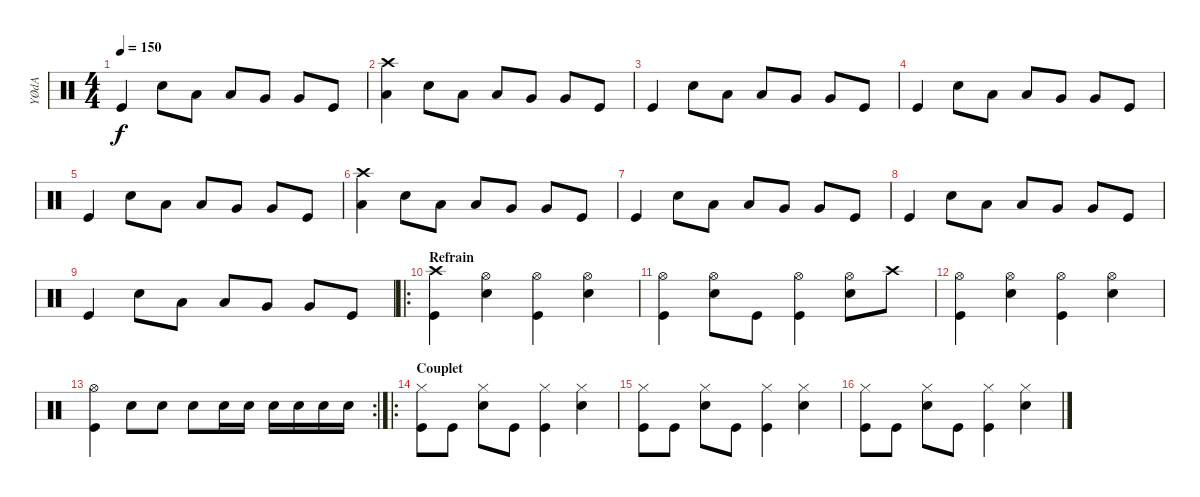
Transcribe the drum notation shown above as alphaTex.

\track ("YØdA" "YØdA") {instrument percussion}
\staff {score}
\articulation defaults
\ts (4 4)
\tempo 150
\clef neutral
\ks c "Kick (hit)".4{dy f} "Electric Snare (hit)".8 "Low Tom (hit)".8 "Low Tom (hit)".8 "Very Low Tom (hit)".8 "Very Low Tom (hit)".8 "Kick (hit)".8
|
("Crash high (hit)" "Low Tom (hit)").4 "Electric Snare (hit)".8 "Low Tom (hit)".8 "Low Tom (hit)".8 "Very Low Tom (hit)".8 "Very Low Tom (hit)".8 "Kick (hit)".8 |
"Kick (hit)".4 "Electric Snare (hit)".8 "Low Tom (hit)".8 "Low Tom (hit)".8 "Very Low Tom (hit)".8 "Very Low Tom (hit)".8 "Kick (hit)".8 |
"Kick (hit)".4 "Electric Snare (hit)".8 "Low Tom (hit)".8 "Low Tom (hit)".8 "Very Low Tom (hit)".8 "Very Low Tom (hit)".8 "Kick (hit)".8 |
"Kick (hit)".4 "Electric Snare (hit)".8 "Low Tom (hit)".8 "Low Tom (hit)".8 "Very Low Tom (hit)".8 "Very Low Tom (hit)".8 "Kick (hit)".8 |
("Crash high (hit)" "Low Tom (hit)").4 "Electric Snare (hit)".8 "Low Tom (hit)".8 "Low Tom (hit)".8 "Very Low Tom (hit)".8 "Very Low Tom (hit)".8 "Kick (hit)".8 |
"Kick (hit)".4 "Electric Snare (hit)".8 "Low Tom (hit)".8 "Low Tom (hit)".8 "Very Low Tom (hit)".8 "Very Low Tom (hit)".8 "Kick (hit)".8 |
"Kick (hit)".4 "Electric Snare (hit)".8 "Low Tom (hit)".8 "Low Tom (hit)".8 "Very Low Tom (hit)".8 "Very Low Tom (hit)".8 "Kick (hit)".8 |
"Kick (hit)".4 "Electric Snare (hit)".8 "Low Tom (hit)".8 "Low Tom (hit)".8 "Very Low Tom (hit)".8 "Very Low Tom (hit)".8 "Kick (hit)".8 |
\ro
\section ("" "Refrain")
("Crash high (hit)" "Kick (hit)").4 ("Hi-Hat (open)" "Electric Snare (hit)").4 ("Hi-Hat (open)" "Kick (hit)").4 ("Hi-Hat (open)" "Electric Snare (hit)").4 |
("Hi-Hat (open)" "Kick (hit)").4 ("Hi-Hat (open)" "Electric Snare (hit)").8 "Kick (hit)".8 ("Hi-Hat (open)" "Kick (hit)").4 ("Hi-Hat (open)" "Electric Snare (hit)").8 "Crash high (hit)".8 |
("Hi-Hat (open)" "Kick (hit)").4 ("Hi-Hat (open)" "Electric Snare (hit)").4 ("Hi-Hat (open)" "Kick (hit)").4 ("Hi-Hat (open)" "Electric Snare (hit)").4 |
\rc 2
("Hi-Hat (open)" "Kick (hit)").4 "Electric Snare (hit)".8 "Electric Snare (hit)".8 "Electric Snare (hit)".8 "Electric Snare (hit)".16 "Electric Snare (hit)".16 "Electric Snare (hit)".16 "Electric Snare (hit)".16 "Electric Snare (hit)".16 "Electric Snare (hit)".16 |
\ro
\section ("" "Couplet")
("Hi-Hat (closed)" "Kick (hit)").8 "Kick (hit)".8 ("Hi-Hat (closed)" "Electric Snare (hit)").8 "Kick (hit)".8 ("Hi-Hat (closed)" "Kick (hit)").4 ("Hi-Hat (closed)" "Electric Snare (hit)").4 |
("Hi-Hat (closed)" "Kick (hit)").8 "Kick (hit)".8 ("Hi-Hat (closed)" "Electric Snare (hit)").8 "Kick (hit)".8 ("Hi-Hat (closed)" "Kick (hit)").4 ("Hi-Hat (closed)" "Electric Snare (hit)").4 |
("Hi-Hat (closed)" "Kick (hit)").8 "Kick (hit)".8 ("Hi-Hat (closed)" "Electric Snare (hit)").8 "Kick (hit)".8 ("Hi-Hat (closed)" "Kick (hit)").4 ("Hi-Hat (closed)" "Electric Snare (hit)").4
